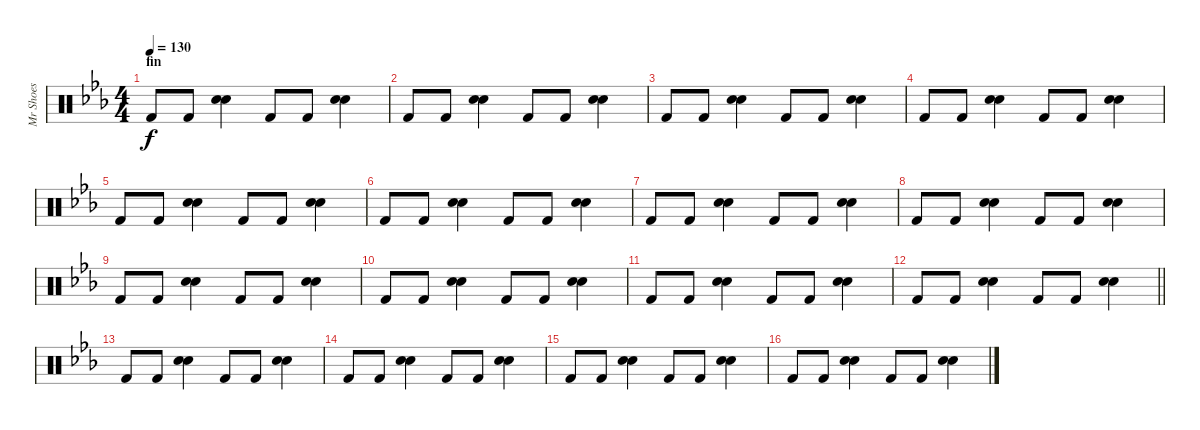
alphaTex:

\track ("Mr Shoes " "Mr Shoes ") {instrument percussion}
\staff {score}
\articulation defaults
\ts (4 4)
\section ("" "fin")
\tempo 130
\clef neutral
\ks eb "Kick (hit) 2".8{dy f} "Kick (hit) 2".8
("Electric Snare (hit)" "Snare (hit) 2").4 "Kick (hit) 2".8 "Kick (hit) 2".8 ("Electric Snare (hit)" "Snare (hit) 2").4 |
"Kick (hit) 2".8 "Kick (hit) 2".8 ("Electric Snare (hit)" "Snare (hit) 2").4 "Kick (hit) 2".8 "Kick (hit) 2".8 ("Electric Snare (hit)" "Snare (hit) 2").4 |
"Kick (hit) 2".8 "Kick (hit) 2".8 ("Electric Snare (hit)" "Snare (hit) 2").4 "Kick (hit) 2".8 "Kick (hit) 2".8 ("Electric Snare (hit)" "Snare (hit) 2").4 |
"Kick (hit) 2".8 "Kick (hit) 2".8 ("Electric Snare (hit)" "Snare (hit) 2").4 "Kick (hit) 2".8 "Kick (hit) 2".8 ("Electric Snare (hit)" "Snare (hit) 2").4 |
"Kick (hit) 2".8 "Kick (hit) 2".8 ("Electric Snare (hit)" "Snare (hit) 2").4 "Kick (hit) 2".8 "Kick (hit) 2".8 ("Electric Snare (hit)" "Snare (hit) 2").4 |
"Kick (hit) 2".8 "Kick (hit) 2".8 ("Electric Snare (hit)" "Snare (hit) 2").4 "Kick (hit) 2".8 "Kick (hit) 2".8 ("Electric Snare (hit)" "Snare (hit) 2").4 |
"Kick (hit) 2".8 "Kick (hit) 2".8 ("Electric Snare (hit)" "Snare (hit) 2").4 "Kick (hit) 2".8 "Kick (hit) 2".8 ("Electric Snare (hit)" "Snare (hit) 2").4 |
"Kick (hit) 2".8 "Kick (hit) 2".8 ("Electric Snare (hit)" "Snare (hit) 2").4 "Kick (hit) 2".8 "Kick (hit) 2".8 ("Electric Snare (hit)" "Snare (hit) 2").4 |
"Kick (hit) 2".8 "Kick (hit) 2".8 ("Electric Snare (hit)" "Snare (hit) 2").4 "Kick (hit) 2".8 "Kick (hit) 2".8 ("Electric Snare (hit)" "Snare (hit) 2").4 |
"Kick (hit) 2".8 "Kick (hit) 2".8 ("Electric Snare (hit)" "Snare (hit) 2").4 "Kick (hit) 2".8 "Kick (hit) 2".8 ("Electric Snare (hit)" "Snare (hit) 2").4 |
"Kick (hit) 2".8 "Kick (hit) 2".8 ("Electric Snare (hit)" "Snare (hit) 2").4 "Kick (hit) 2".8 "Kick (hit) 2".8 ("Electric Snare (hit)" "Snare (hit) 2").4 |
\barLineRight lightlight "Kick (hit) 2".8 "Kick (hit) 2".8
("Electric Snare (hit)" "Snare (hit) 2").4 "Kick (hit) 2".8 "Kick (hit) 2".8 ("Electric Snare (hit)" "Snare (hit) 2").4 |
"Kick (hit) 2".8 "Kick (hit) 2".8 ("Electric Snare (hit)" "Snare (hit) 2").4 "Kick (hit) 2".8 "Kick (hit) 2".8 ("Electric Snare (hit)" "Snare (hit) 2").4 |
"Kick (hit) 2".8 "Kick (hit) 2".8 ("Electric Snare (hit)" "Snare (hit) 2").4 "Kick (hit) 2".8 "Kick (hit) 2".8 ("Electric Snare (hit)" "Snare (hit) 2").4 |
"Kick (hit) 2".8 "Kick (hit) 2".8 ("Electric Snare (hit)" "Snare (hit) 2").4 "Kick (hit) 2".8 "Kick (hit) 2".8 ("Electric Snare (hit)" "Snare (hit) 2").4 |
"Kick (hit) 2".8 "Kick (hit) 2".8 ("Electric Snare (hit)" "Snare (hit) 2").4 "Kick (hit) 2".8 "Kick (hit) 2".8 ("Electric Snare (hit)" "Snare (hit) 2").4
